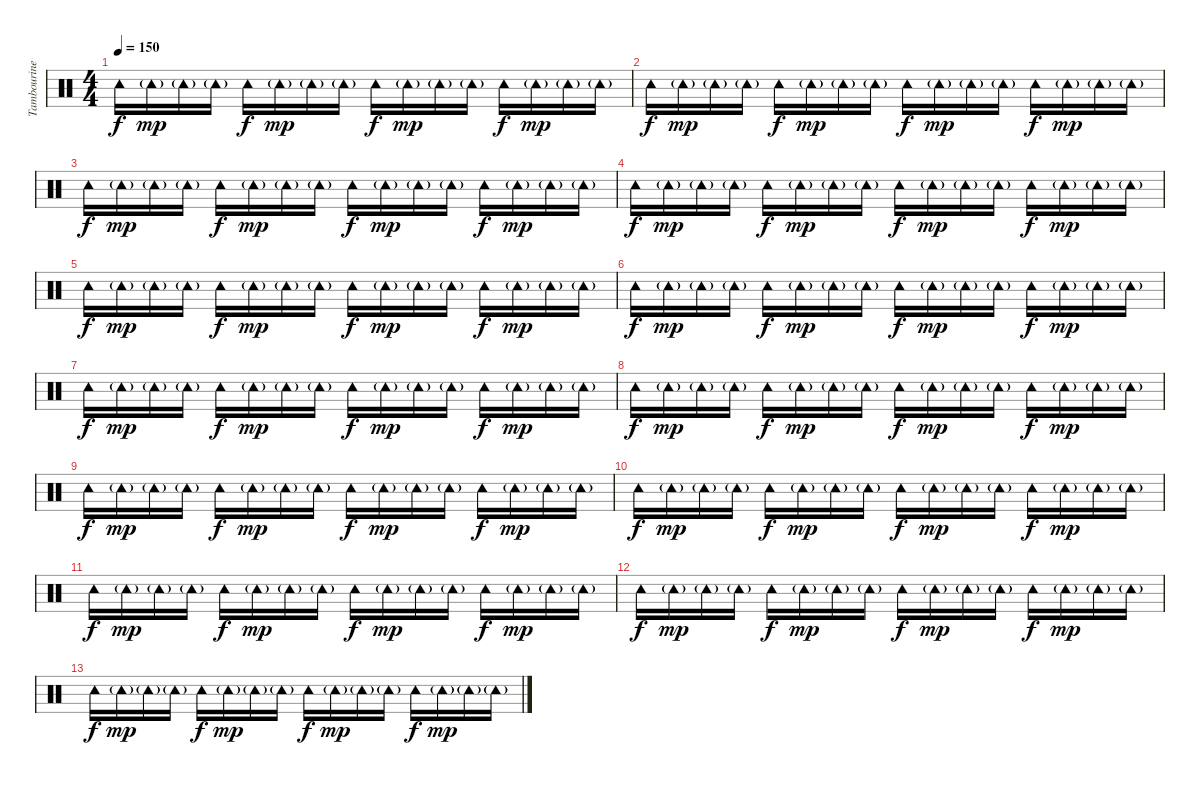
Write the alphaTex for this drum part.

\track ("Tambourine" "Tambourine") {instrument percussion}
\staff {score}
\articulation defaults
\ts (4 4)
\tempo 150
\clef neutral
\ks c "Tambourine (hit)".16{dy f} "Tambourine (hit)"{g}.16{dy mp} "Tambourine (hit)"{g}.16 "Tambourine (hit)"{g}.16 "Tambourine (hit)".16{dy f} "Tambourine (hit)"{g}.16{dy mp} "Tambourine (hit)"{g}.16 "Tambourine (hit)"{g}.16 "Tambourine (hit)".16{dy f} "Tambourine (hit)"{g}.16{dy mp} "Tambourine (hit)"{g}.16 "Tambourine (hit)"{g}.16 "Tambourine (hit)".16{dy f} "Tambourine (hit)"{g}.16{dy mp} "Tambourine (hit)"{g}.16 "Tambourine (hit)"{g}.16
|
"Tambourine (hit)".16{dy f} "Tambourine (hit)"{g}.16{dy mp} "Tambourine (hit)"{g}.16 "Tambourine (hit)"{g}.16 "Tambourine (hit)".16{dy f} "Tambourine (hit)"{g}.16{dy mp} "Tambourine (hit)"{g}.16 "Tambourine (hit)"{g}.16 "Tambourine (hit)".16{dy f} "Tambourine (hit)"{g}.16{dy mp} "Tambourine (hit)"{g}.16 "Tambourine (hit)"{g}.16 "Tambourine (hit)".16{dy f} "Tambourine (hit)"{g}.16{dy mp} "Tambourine (hit)"{g}.16 "Tambourine (hit)"{g}.16 |
"Tambourine (hit)".16{dy f} "Tambourine (hit)"{g}.16{dy mp} "Tambourine (hit)"{g}.16 "Tambourine (hit)"{g}.16 "Tambourine (hit)".16{dy f} "Tambourine (hit)"{g}.16{dy mp} "Tambourine (hit)"{g}.16 "Tambourine (hit)"{g}.16 "Tambourine (hit)".16{dy f} "Tambourine (hit)"{g}.16{dy mp} "Tambourine (hit)"{g}.16 "Tambourine (hit)"{g}.16 "Tambourine (hit)".16{dy f} "Tambourine (hit)"{g}.16{dy mp} "Tambourine (hit)"{g}.16 "Tambourine (hit)"{g}.16 |
"Tambourine (hit)".16{dy f} "Tambourine (hit)"{g}.16{dy mp} "Tambourine (hit)"{g}.16 "Tambourine (hit)"{g}.16 "Tambourine (hit)".16{dy f} "Tambourine (hit)"{g}.16{dy mp} "Tambourine (hit)"{g}.16 "Tambourine (hit)"{g}.16 "Tambourine (hit)".16{dy f} "Tambourine (hit)"{g}.16{dy mp} "Tambourine (hit)"{g}.16 "Tambourine (hit)"{g}.16 "Tambourine (hit)".16{dy f} "Tambourine (hit)"{g}.16{dy mp} "Tambourine (hit)"{g}.16 "Tambourine (hit)"{g}.16 |
"Tambourine (hit)".16{dy f} "Tambourine (hit)"{g}.16{dy mp} "Tambourine (hit)"{g}.16 "Tambourine (hit)"{g}.16 "Tambourine (hit)".16{dy f} "Tambourine (hit)"{g}.16{dy mp} "Tambourine (hit)"{g}.16 "Tambourine (hit)"{g}.16 "Tambourine (hit)".16{dy f} "Tambourine (hit)"{g}.16{dy mp} "Tambourine (hit)"{g}.16 "Tambourine (hit)"{g}.16 "Tambourine (hit)".16{dy f} "Tambourine (hit)"{g}.16{dy mp} "Tambourine (hit)"{g}.16 "Tambourine (hit)"{g}.16 |
"Tambourine (hit)".16{dy f} "Tambourine (hit)"{g}.16{dy mp} "Tambourine (hit)"{g}.16 "Tambourine (hit)"{g}.16 "Tambourine (hit)".16{dy f} "Tambourine (hit)"{g}.16{dy mp} "Tambourine (hit)"{g}.16 "Tambourine (hit)"{g}.16 "Tambourine (hit)".16{dy f} "Tambourine (hit)"{g}.16{dy mp} "Tambourine (hit)"{g}.16 "Tambourine (hit)"{g}.16 "Tambourine (hit)".16{dy f} "Tambourine (hit)"{g}.16{dy mp} "Tambourine (hit)"{g}.16 "Tambourine (hit)"{g}.16 |
"Tambourine (hit)".16{dy f} "Tambourine (hit)"{g}.16{dy mp} "Tambourine (hit)"{g}.16 "Tambourine (hit)"{g}.16 "Tambourine (hit)".16{dy f} "Tambourine (hit)"{g}.16{dy mp} "Tambourine (hit)"{g}.16 "Tambourine (hit)"{g}.16 "Tambourine (hit)".16{dy f} "Tambourine (hit)"{g}.16{dy mp} "Tambourine (hit)"{g}.16 "Tambourine (hit)"{g}.16 "Tambourine (hit)".16{dy f} "Tambourine (hit)"{g}.16{dy mp} "Tambourine (hit)"{g}.16 "Tambourine (hit)"{g}.16 |
"Tambourine (hit)".16{dy f} "Tambourine (hit)"{g}.16{dy mp} "Tambourine (hit)"{g}.16 "Tambourine (hit)"{g}.16 "Tambourine (hit)".16{dy f} "Tambourine (hit)"{g}.16{dy mp} "Tambourine (hit)"{g}.16 "Tambourine (hit)"{g}.16 "Tambourine (hit)".16{dy f} "Tambourine (hit)"{g}.16{dy mp} "Tambourine (hit)"{g}.16 "Tambourine (hit)"{g}.16 "Tambourine (hit)".16{dy f} "Tambourine (hit)"{g}.16{dy mp} "Tambourine (hit)"{g}.16 "Tambourine (hit)"{g}.16 |
"Tambourine (hit)".16{dy f} "Tambourine (hit)"{g}.16{dy mp} "Tambourine (hit)"{g}.16 "Tambourine (hit)"{g}.16 "Tambourine (hit)".16{dy f} "Tambourine (hit)"{g}.16{dy mp} "Tambourine (hit)"{g}.16 "Tambourine (hit)"{g}.16 "Tambourine (hit)".16{dy f} "Tambourine (hit)"{g}.16{dy mp} "Tambourine (hit)"{g}.16 "Tambourine (hit)"{g}.16 "Tambourine (hit)".16{dy f} "Tambourine (hit)"{g}.16{dy mp} "Tambourine (hit)"{g}.16 "Tambourine (hit)"{g}.16 |
"Tambourine (hit)".16{dy f} "Tambourine (hit)"{g}.16{dy mp} "Tambourine (hit)"{g}.16 "Tambourine (hit)"{g}.16 "Tambourine (hit)".16{dy f} "Tambourine (hit)"{g}.16{dy mp} "Tambourine (hit)"{g}.16 "Tambourine (hit)"{g}.16 "Tambourine (hit)".16{dy f} "Tambourine (hit)"{g}.16{dy mp} "Tambourine (hit)"{g}.16 "Tambourine (hit)"{g}.16 "Tambourine (hit)".16{dy f} "Tambourine (hit)"{g}.16{dy mp} "Tambourine (hit)"{g}.16 "Tambourine (hit)"{g}.16 |
"Tambourine (hit)".16{dy f} "Tambourine (hit)"{g}.16{dy mp} "Tambourine (hit)"{g}.16 "Tambourine (hit)"{g}.16 "Tambourine (hit)".16{dy f} "Tambourine (hit)"{g}.16{dy mp} "Tambourine (hit)"{g}.16 "Tambourine (hit)"{g}.16 "Tambourine (hit)".16{dy f} "Tambourine (hit)"{g}.16{dy mp} "Tambourine (hit)"{g}.16 "Tambourine (hit)"{g}.16 "Tambourine (hit)".16{dy f} "Tambourine (hit)"{g}.16{dy mp} "Tambourine (hit)"{g}.16 "Tambourine (hit)"{g}.16 |
"Tambourine (hit)".16{dy f} "Tambourine (hit)"{g}.16{dy mp} "Tambourine (hit)"{g}.16 "Tambourine (hit)"{g}.16 "Tambourine (hit)".16{dy f} "Tambourine (hit)"{g}.16{dy mp} "Tambourine (hit)"{g}.16 "Tambourine (hit)"{g}.16 "Tambourine (hit)".16{dy f} "Tambourine (hit)"{g}.16{dy mp} "Tambourine (hit)"{g}.16 "Tambourine (hit)"{g}.16 "Tambourine (hit)".16{dy f} "Tambourine (hit)"{g}.16{dy mp} "Tambourine (hit)"{g}.16 "Tambourine (hit)"{g}.16 |
"Tambourine (hit)".16{dy f} "Tambourine (hit)"{g}.16{dy mp} "Tambourine (hit)"{g}.16 "Tambourine (hit)"{g}.16 "Tambourine (hit)".16{dy f} "Tambourine (hit)"{g}.16{dy mp} "Tambourine (hit)"{g}.16 "Tambourine (hit)"{g}.16 "Tambourine (hit)".16{dy f} "Tambourine (hit)"{g}.16{dy mp} "Tambourine (hit)"{g}.16 "Tambourine (hit)"{g}.16 "Tambourine (hit)".16{dy f} "Tambourine (hit)"{g}.16{dy mp} "Tambourine (hit)"{g}.16 "Tambourine (hit)"{g}.16
